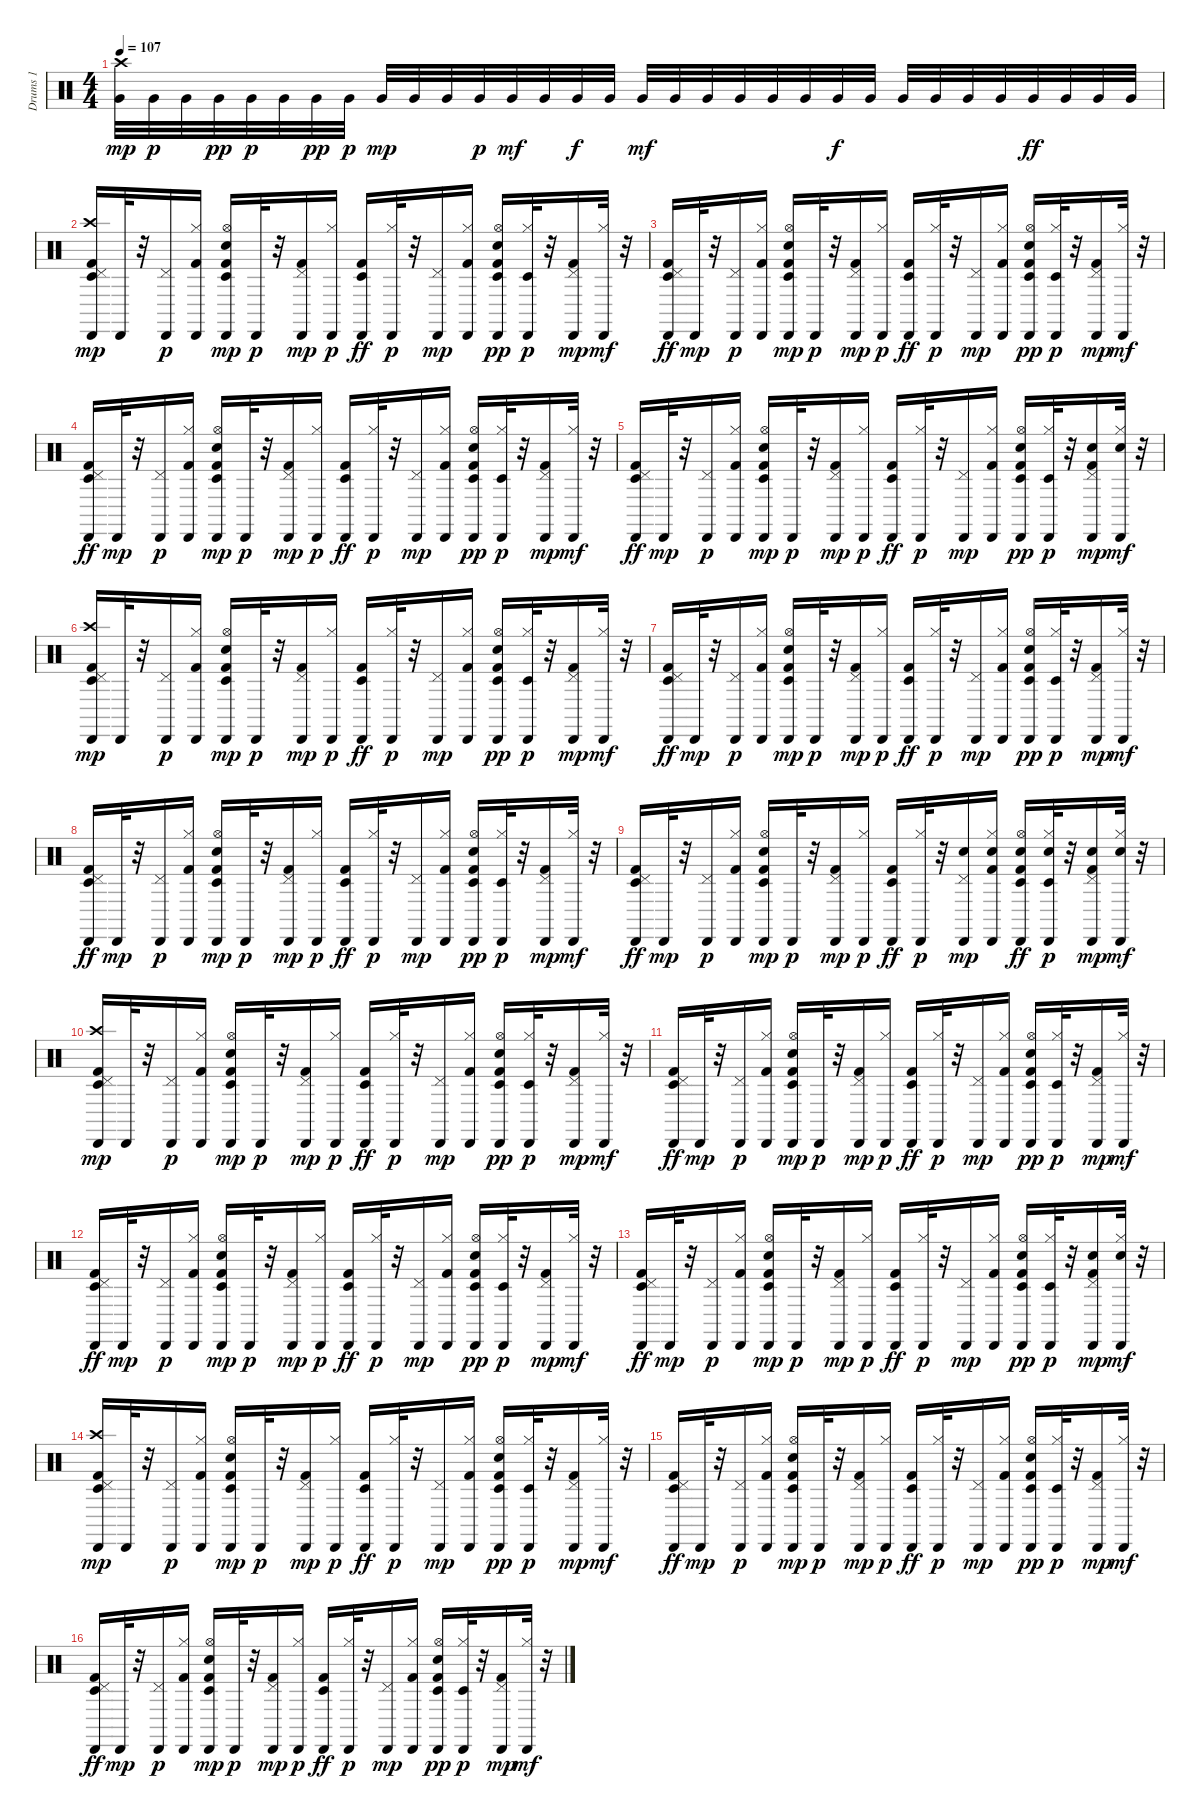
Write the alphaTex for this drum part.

\track ("Drums 1" "Drums 1") {instrument percussion}
\staff {score}
\articulation defaults
\ts (4 4)
\tempo 107
\clef neutral
\ks c
("Very Low Tom (hit)" "Crash high (hit)").32{dy mp} "Very Low Tom (hit)".32{dy p} "Very Low Tom (hit)".32 "Very Low Tom (hit)".32{dy pp} "Very Low Tom (hit)".32{dy p} "Very Low Tom (hit)".32 "Very Low Tom (hit)".32{dy pp} "Very Low Tom (hit)".32{dy p} "Very Low Tom (hit)".32{dy mp} "Very Low Tom (hit)".32 "Very Low Tom (hit)".32 "Very Low Tom (hit)".32{dy p} "Very Low Tom (hit)".32{dy mf} "Very Low Tom (hit)".32 "Very Low Tom (hit)".32{dy f} "Very Low Tom (hit)".32 "Very Low Tom (hit)".32{dy mf} "Very Low Tom (hit)".32 "Very Low Tom (hit)".32 "Very Low Tom (hit)".32 "Very Low Tom (hit)".32 "Very Low Tom (hit)".32 "Very Low Tom (hit)".32{dy f} "Very Low Tom (hit)".32 "Very Low Tom (hit)".32 "Very Low Tom (hit)".32 "Very Low Tom (hit)".32 "Very Low Tom (hit)".32 "Very Low Tom (hit)".32{dy ff} "Very Low Tom (hit)".32 "Very Low Tom (hit)".32 "Very Low Tom (hit)".32 |
("Timbale low (hit)" "Kick (hit) 2" "Pedal Hi-Hat (hit)" "Cabasa (hit)" "Crash high (hit)").16{dy mp} "Cabasa (hit)".32 r.32 ("Pedal Hi-Hat (hit)" "Cabasa (hit)").16{dy p} ("Kick (hit) 2" "Hi-Hat (closed)" "Cabasa (hit)").16 ("Timbale low (hit)" "Kick (hit) 2" "Snare (hit) 2" "Hi-Hat (open)" "Cabasa (hit)").16{dy mp} "Cabasa (hit)".32{dy p} r.32 ("Kick (hit) 2" "Pedal Hi-Hat (hit)" "Cabasa (hit)").16{dy mp} ("Hi-Hat (closed)" "Cabasa (hit)").16{dy p} ("Timbale low (hit)" "Kick (hit) 2" "Cabasa (hit)").16{dy ff} ("Hi-Hat (closed)" "Cabasa (hit)").32{dy p} r.32 ("Pedal Hi-Hat (hit)" "Cabasa (hit)").16{dy mp} ("Kick (hit) 2" "Hi-Hat (closed)" "Cabasa (hit)").16 ("Timbale low (hit)" "Kick (hit) 2" "Snare (hit) 2" "Hi-Hat (open)" "Cabasa (hit)").16{dy pp} ("Timbale low (hit)" "Hi-Hat (closed)" "Cabasa (hit)").32{dy p} r.32 ("Kick (hit) 2" "Pedal Hi-Hat (hit)" "Cabasa (hit)").16{dy mp} ("Hi-Hat (closed)" "Cabasa (hit)").32{dy mf} r.32 |
("Timbale low (hit)" "Kick (hit) 2" "Pedal Hi-Hat (hit)" "Cabasa (hit)").16{dy ff} "Cabasa (hit)".32{dy mp} r.32 ("Pedal Hi-Hat (hit)" "Cabasa (hit)").16{dy p} ("Kick (hit) 2" "Hi-Hat (closed)" "Cabasa (hit)").16 ("Timbale low (hit)" "Kick (hit) 2" "Snare (hit) 2" "Hi-Hat (open)" "Cabasa (hit)").16{dy mp} "Cabasa (hit)".32{dy p} r.32 ("Kick (hit) 2" "Pedal Hi-Hat (hit)" "Cabasa (hit)").16{dy mp} ("Hi-Hat (closed)" "Cabasa (hit)").16{dy p} ("Timbale low (hit)" "Kick (hit) 2" "Cabasa (hit)").16{dy ff} ("Hi-Hat (closed)" "Cabasa (hit)").32{dy p} r.32 ("Pedal Hi-Hat (hit)" "Cabasa (hit)").16{dy mp} ("Kick (hit) 2" "Hi-Hat (closed)" "Cabasa (hit)").16 ("Timbale low (hit)" "Kick (hit) 2" "Snare (hit) 2" "Hi-Hat (open)" "Cabasa (hit)").16{dy pp} ("Timbale low (hit)" "Hi-Hat (closed)" "Cabasa (hit)").32{dy p} r.32 ("Kick (hit) 2" "Pedal Hi-Hat (hit)" "Cabasa (hit)").16{dy mp} ("Hi-Hat (closed)" "Cabasa (hit)").32{dy mf} r.32 |
("Timbale low (hit)" "Kick (hit) 2" "Pedal Hi-Hat (hit)" "Cabasa (hit)").16{dy ff} "Cabasa (hit)".32{dy mp} r.32 ("Pedal Hi-Hat (hit)" "Cabasa (hit)").16{dy p} ("Kick (hit) 2" "Hi-Hat (closed)" "Cabasa (hit)").16 ("Timbale low (hit)" "Kick (hit) 2" "Snare (hit) 2" "Hi-Hat (open)" "Cabasa (hit)").16{dy mp} "Cabasa (hit)".32{dy p} r.32 ("Kick (hit) 2" "Pedal Hi-Hat (hit)" "Cabasa (hit)").16{dy mp} ("Hi-Hat (closed)" "Cabasa (hit)").16{dy p} ("Timbale low (hit)" "Kick (hit) 2" "Cabasa (hit)").16{dy ff} ("Hi-Hat (closed)" "Cabasa (hit)").32{dy p} r.32 ("Pedal Hi-Hat (hit)" "Cabasa (hit)").16{dy mp} ("Kick (hit) 2" "Hi-Hat (closed)" "Cabasa (hit)").16 ("Timbale low (hit)" "Kick (hit) 2" "Snare (hit) 2" "Hi-Hat (open)" "Cabasa (hit)").16{dy pp} ("Timbale low (hit)" "Hi-Hat (closed)" "Cabasa (hit)").32{dy p} r.32 ("Kick (hit) 2" "Pedal Hi-Hat (hit)" "Cabasa (hit)").16{dy mp} ("Hi-Hat (closed)" "Cabasa (hit)").32{dy mf} r.32 |
("Timbale low (hit)" "Kick (hit) 2" "Pedal Hi-Hat (hit)" "Cabasa (hit)").16{dy ff} "Cabasa (hit)".32{dy mp} r.32 ("Pedal Hi-Hat (hit)" "Cabasa (hit)").16{dy p} ("Kick (hit) 2" "Hi-Hat (closed)" "Cabasa (hit)").16 ("Timbale low (hit)" "Kick (hit) 2" "Snare (hit) 2" "Hi-Hat (open)" "Cabasa (hit)").16{dy mp} "Cabasa (hit)".32{dy p} r.32 ("Kick (hit) 2" "Pedal Hi-Hat (hit)" "Cabasa (hit)").16{dy mp} ("Hi-Hat (closed)" "Cabasa (hit)").16{dy p} ("Timbale low (hit)" "Kick (hit) 2" "Cabasa (hit)").16{dy ff} ("Hi-Hat (closed)" "Cabasa (hit)").32{dy p} r.32 ("Pedal Hi-Hat (hit)" "Cabasa (hit)").16{dy mp} ("Kick (hit) 2" "Hi-Hat (closed)" "Cabasa (hit)").16 ("Timbale low (hit)" "Kick (hit) 2" "Snare (hit) 2" "Hi-Hat (open)" "Cabasa (hit)").16{dy pp} ("Timbale low (hit)" "Hi-Hat (closed)" "Cabasa (hit)").32{dy p} r.32 ("Kick (hit) 2" "Pedal Hi-Hat (hit)" "Snare (hit) 2" "Cabasa (hit)").16{dy mp} ("Hi-Hat (closed)" "Snare (hit) 2" "Cabasa (hit)").32{dy mf} r.32 |
("Timbale low (hit)" "Kick (hit) 2" "Pedal Hi-Hat (hit)" "Cabasa (hit)" "Crash high (hit)").16{dy mp} "Cabasa (hit)".32 r.32 ("Pedal Hi-Hat (hit)" "Cabasa (hit)").16{dy p} ("Kick (hit) 2" "Hi-Hat (closed)" "Cabasa (hit)").16 ("Timbale low (hit)" "Kick (hit) 2" "Snare (hit) 2" "Hi-Hat (open)" "Cabasa (hit)").16{dy mp} "Cabasa (hit)".32{dy p} r.32 ("Kick (hit) 2" "Pedal Hi-Hat (hit)" "Cabasa (hit)").16{dy mp} ("Hi-Hat (closed)" "Cabasa (hit)").16{dy p} ("Timbale low (hit)" "Kick (hit) 2" "Cabasa (hit)").16{dy ff} ("Hi-Hat (closed)" "Cabasa (hit)").32{dy p} r.32 ("Pedal Hi-Hat (hit)" "Cabasa (hit)").16{dy mp} ("Kick (hit) 2" "Hi-Hat (closed)" "Cabasa (hit)").16 ("Timbale low (hit)" "Kick (hit) 2" "Snare (hit) 2" "Hi-Hat (open)" "Cabasa (hit)").16{dy pp} ("Timbale low (hit)" "Hi-Hat (closed)" "Cabasa (hit)").32{dy p} r.32 ("Kick (hit) 2" "Pedal Hi-Hat (hit)" "Cabasa (hit)").16{dy mp} ("Hi-Hat (closed)" "Cabasa (hit)").32{dy mf} r.32 |
("Timbale low (hit)" "Kick (hit) 2" "Pedal Hi-Hat (hit)" "Cabasa (hit)").16{dy ff} "Cabasa (hit)".32{dy mp} r.32 ("Pedal Hi-Hat (hit)" "Cabasa (hit)").16{dy p} ("Kick (hit) 2" "Hi-Hat (closed)" "Cabasa (hit)").16 ("Timbale low (hit)" "Kick (hit) 2" "Snare (hit) 2" "Hi-Hat (open)" "Cabasa (hit)").16{dy mp} "Cabasa (hit)".32{dy p} r.32 ("Kick (hit) 2" "Pedal Hi-Hat (hit)" "Cabasa (hit)").16{dy mp} ("Hi-Hat (closed)" "Cabasa (hit)").16{dy p} ("Timbale low (hit)" "Kick (hit) 2" "Cabasa (hit)").16{dy ff} ("Hi-Hat (closed)" "Cabasa (hit)").32{dy p} r.32 ("Pedal Hi-Hat (hit)" "Cabasa (hit)").16{dy mp} ("Kick (hit) 2" "Hi-Hat (closed)" "Cabasa (hit)").16 ("Timbale low (hit)" "Kick (hit) 2" "Snare (hit) 2" "Hi-Hat (open)" "Cabasa (hit)").16{dy pp} ("Timbale low (hit)" "Hi-Hat (closed)" "Cabasa (hit)").32{dy p} r.32 ("Kick (hit) 2" "Pedal Hi-Hat (hit)" "Cabasa (hit)").16{dy mp} ("Hi-Hat (closed)" "Cabasa (hit)").32{dy mf} r.32 |
("Timbale low (hit)" "Kick (hit) 2" "Pedal Hi-Hat (hit)" "Cabasa (hit)").16{dy ff} "Cabasa (hit)".32{dy mp} r.32 ("Pedal Hi-Hat (hit)" "Cabasa (hit)").16{dy p} ("Kick (hit) 2" "Hi-Hat (closed)" "Cabasa (hit)").16 ("Timbale low (hit)" "Kick (hit) 2" "Snare (hit) 2" "Hi-Hat (open)" "Cabasa (hit)").16{dy mp} "Cabasa (hit)".32{dy p} r.32 ("Kick (hit) 2" "Pedal Hi-Hat (hit)" "Cabasa (hit)").16{dy mp} ("Hi-Hat (closed)" "Cabasa (hit)").16{dy p} ("Timbale low (hit)" "Kick (hit) 2" "Cabasa (hit)").16{dy ff} ("Hi-Hat (closed)" "Cabasa (hit)").32{dy p} r.32 ("Pedal Hi-Hat (hit)" "Cabasa (hit)").16{dy mp} ("Kick (hit) 2" "Hi-Hat (closed)" "Cabasa (hit)").16 ("Timbale low (hit)" "Kick (hit) 2" "Snare (hit) 2" "Hi-Hat (open)" "Cabasa (hit)").16{dy pp} ("Timbale low (hit)" "Hi-Hat (closed)" "Cabasa (hit)").32{dy p} r.32 ("Kick (hit) 2" "Pedal Hi-Hat (hit)" "Cabasa (hit)").16{dy mp} ("Hi-Hat (closed)" "Cabasa (hit)").32{dy mf} r.32 |
("Timbale low (hit)" "Kick (hit) 2" "Pedal Hi-Hat (hit)" "Cabasa (hit)").16{dy ff} "Cabasa (hit)".32{dy mp} r.32 ("Pedal Hi-Hat (hit)" "Cabasa (hit)").16{dy p} ("Kick (hit) 2" "Hi-Hat (closed)" "Cabasa (hit)").16 ("Timbale low (hit)" "Kick (hit) 2" "Snare (hit) 2" "Hi-Hat (open)" "Cabasa (hit)").16{dy mp} "Cabasa (hit)".32{dy p} r.32 ("Kick (hit) 2" "Pedal Hi-Hat (hit)" "Cabasa (hit)").16{dy mp} ("Hi-Hat (closed)" "Cabasa (hit)").16{dy p} ("Timbale low (hit)" "Kick (hit) 2" "Cabasa (hit)").16{dy ff} ("Hi-Hat (closed)" "Cabasa (hit)").32{dy p} r.32 ("Pedal Hi-Hat (hit)" "Snare (hit) 2" "Cabasa (hit)").16{dy mp} ("Kick (hit) 2" "Hi-Hat (closed)" "Snare (hit) 2" "Cabasa (hit)").16 ("Timbale low (hit)" "Kick (hit) 2" "Hi-Hat (open)" "Snare (hit) 2" "Cabasa (hit)").16{dy ff} ("Timbale low (hit)" "Hi-Hat (closed)" "Snare (hit) 2" "Cabasa (hit)").32{dy p} r.32 ("Kick (hit) 2" "Pedal Hi-Hat (hit)" "Snare (hit) 2" "Cabasa (hit)").16{dy mp} ("Hi-Hat (closed)" "Snare (hit) 2" "Cabasa (hit)").32{dy mf} r.32 |
("Timbale low (hit)" "Kick (hit) 2" "Pedal Hi-Hat (hit)" "Cabasa (hit)" "Crash high (hit)").16{dy mp} "Cabasa (hit)".32 r.32 ("Pedal Hi-Hat (hit)" "Cabasa (hit)").16{dy p} ("Kick (hit) 2" "Hi-Hat (closed)" "Cabasa (hit)").16 ("Timbale low (hit)" "Kick (hit) 2" "Snare (hit) 2" "Hi-Hat (open)" "Cabasa (hit)").16{dy mp} "Cabasa (hit)".32{dy p} r.32 ("Kick (hit) 2" "Pedal Hi-Hat (hit)" "Cabasa (hit)").16{dy mp} ("Hi-Hat (closed)" "Cabasa (hit)").16{dy p} ("Timbale low (hit)" "Kick (hit) 2" "Cabasa (hit)").16{dy ff} ("Hi-Hat (closed)" "Cabasa (hit)").32{dy p} r.32 ("Pedal Hi-Hat (hit)" "Cabasa (hit)").16{dy mp} ("Kick (hit) 2" "Hi-Hat (closed)" "Cabasa (hit)").16 ("Timbale low (hit)" "Kick (hit) 2" "Snare (hit) 2" "Hi-Hat (open)" "Cabasa (hit)").16{dy pp} ("Timbale low (hit)" "Hi-Hat (closed)" "Cabasa (hit)").32{dy p} r.32 ("Kick (hit) 2" "Pedal Hi-Hat (hit)" "Cabasa (hit)").16{dy mp} ("Hi-Hat (closed)" "Cabasa (hit)").32{dy mf} r.32 |
("Timbale low (hit)" "Kick (hit) 2" "Pedal Hi-Hat (hit)" "Cabasa (hit)").16{dy ff} "Cabasa (hit)".32{dy mp} r.32 ("Pedal Hi-Hat (hit)" "Cabasa (hit)").16{dy p} ("Kick (hit) 2" "Hi-Hat (closed)" "Cabasa (hit)").16 ("Timbale low (hit)" "Kick (hit) 2" "Snare (hit) 2" "Hi-Hat (open)" "Cabasa (hit)").16{dy mp} "Cabasa (hit)".32{dy p} r.32 ("Kick (hit) 2" "Pedal Hi-Hat (hit)" "Cabasa (hit)").16{dy mp} ("Hi-Hat (closed)" "Cabasa (hit)").16{dy p} ("Timbale low (hit)" "Kick (hit) 2" "Cabasa (hit)").16{dy ff} ("Hi-Hat (closed)" "Cabasa (hit)").32{dy p} r.32 ("Pedal Hi-Hat (hit)" "Cabasa (hit)").16{dy mp} ("Kick (hit) 2" "Hi-Hat (closed)" "Cabasa (hit)").16 ("Timbale low (hit)" "Kick (hit) 2" "Snare (hit) 2" "Hi-Hat (open)" "Cabasa (hit)").16{dy pp} ("Timbale low (hit)" "Hi-Hat (closed)" "Cabasa (hit)").32{dy p} r.32 ("Kick (hit) 2" "Pedal Hi-Hat (hit)" "Cabasa (hit)").16{dy mp} ("Hi-Hat (closed)" "Cabasa (hit)").32{dy mf} r.32 |
("Timbale low (hit)" "Kick (hit) 2" "Pedal Hi-Hat (hit)" "Cabasa (hit)").16{dy ff} "Cabasa (hit)".32{dy mp} r.32 ("Pedal Hi-Hat (hit)" "Cabasa (hit)").16{dy p} ("Kick (hit) 2" "Hi-Hat (closed)" "Cabasa (hit)").16 ("Timbale low (hit)" "Kick (hit) 2" "Snare (hit) 2" "Hi-Hat (open)" "Cabasa (hit)").16{dy mp} "Cabasa (hit)".32{dy p} r.32 ("Kick (hit) 2" "Pedal Hi-Hat (hit)" "Cabasa (hit)").16{dy mp} ("Hi-Hat (closed)" "Cabasa (hit)").16{dy p} ("Timbale low (hit)" "Kick (hit) 2" "Cabasa (hit)").16{dy ff} ("Hi-Hat (closed)" "Cabasa (hit)").32{dy p} r.32 ("Pedal Hi-Hat (hit)" "Cabasa (hit)").16{dy mp} ("Kick (hit) 2" "Hi-Hat (closed)" "Cabasa (hit)").16 ("Timbale low (hit)" "Kick (hit) 2" "Snare (hit) 2" "Hi-Hat (open)" "Cabasa (hit)").16{dy pp} ("Timbale low (hit)" "Hi-Hat (closed)" "Cabasa (hit)").32{dy p} r.32 ("Kick (hit) 2" "Pedal Hi-Hat (hit)" "Cabasa (hit)").16{dy mp} ("Hi-Hat (closed)" "Cabasa (hit)").32{dy mf} r.32 |
("Timbale low (hit)" "Kick (hit) 2" "Pedal Hi-Hat (hit)" "Cabasa (hit)").16{dy ff} "Cabasa (hit)".32{dy mp} r.32 ("Pedal Hi-Hat (hit)" "Cabasa (hit)").16{dy p} ("Kick (hit) 2" "Hi-Hat (closed)" "Cabasa (hit)").16 ("Timbale low (hit)" "Kick (hit) 2" "Snare (hit) 2" "Hi-Hat (open)" "Cabasa (hit)").16{dy mp} "Cabasa (hit)".32{dy p} r.32 ("Kick (hit) 2" "Pedal Hi-Hat (hit)" "Cabasa (hit)").16{dy mp} ("Hi-Hat (closed)" "Cabasa (hit)").16{dy p} ("Timbale low (hit)" "Kick (hit) 2" "Cabasa (hit)").16{dy ff} ("Hi-Hat (closed)" "Cabasa (hit)").32{dy p} r.32 ("Pedal Hi-Hat (hit)" "Cabasa (hit)").16{dy mp} ("Kick (hit) 2" "Hi-Hat (closed)" "Cabasa (hit)").16 ("Timbale low (hit)" "Kick (hit) 2" "Snare (hit) 2" "Hi-Hat (open)" "Cabasa (hit)").16{dy pp} ("Timbale low (hit)" "Hi-Hat (closed)" "Cabasa (hit)").32{dy p} r.32 ("Kick (hit) 2" "Pedal Hi-Hat (hit)" "Snare (hit) 2" "Cabasa (hit)").16{dy mp} ("Hi-Hat (closed)" "Snare (hit) 2" "Cabasa (hit)").32{dy mf} r.32 |
("Timbale low (hit)" "Kick (hit) 2" "Pedal Hi-Hat (hit)" "Cabasa (hit)" "Crash high (hit)").16{dy mp} "Cabasa (hit)".32 r.32 ("Pedal Hi-Hat (hit)" "Cabasa (hit)").16{dy p} ("Kick (hit) 2" "Hi-Hat (closed)" "Cabasa (hit)").16 ("Timbale low (hit)" "Kick (hit) 2" "Snare (hit) 2" "Hi-Hat (open)" "Cabasa (hit)").16{dy mp} "Cabasa (hit)".32{dy p} r.32 ("Kick (hit) 2" "Pedal Hi-Hat (hit)" "Cabasa (hit)").16{dy mp} ("Hi-Hat (closed)" "Cabasa (hit)").16{dy p} ("Timbale low (hit)" "Kick (hit) 2" "Cabasa (hit)").16{dy ff} ("Hi-Hat (closed)" "Cabasa (hit)").32{dy p} r.32 ("Pedal Hi-Hat (hit)" "Cabasa (hit)").16{dy mp} ("Kick (hit) 2" "Hi-Hat (closed)" "Cabasa (hit)").16 ("Timbale low (hit)" "Kick (hit) 2" "Snare (hit) 2" "Hi-Hat (open)" "Cabasa (hit)").16{dy pp} ("Timbale low (hit)" "Hi-Hat (closed)" "Cabasa (hit)").32{dy p} r.32 ("Kick (hit) 2" "Pedal Hi-Hat (hit)" "Cabasa (hit)").16{dy mp} ("Hi-Hat (closed)" "Cabasa (hit)").32{dy mf} r.32 |
("Timbale low (hit)" "Kick (hit) 2" "Pedal Hi-Hat (hit)" "Cabasa (hit)").16{dy ff} "Cabasa (hit)".32{dy mp} r.32 ("Pedal Hi-Hat (hit)" "Cabasa (hit)").16{dy p} ("Kick (hit) 2" "Hi-Hat (closed)" "Cabasa (hit)").16 ("Timbale low (hit)" "Kick (hit) 2" "Snare (hit) 2" "Hi-Hat (open)" "Cabasa (hit)").16{dy mp} "Cabasa (hit)".32{dy p} r.32 ("Kick (hit) 2" "Pedal Hi-Hat (hit)" "Cabasa (hit)").16{dy mp} ("Hi-Hat (closed)" "Cabasa (hit)").16{dy p} ("Timbale low (hit)" "Kick (hit) 2" "Cabasa (hit)").16{dy ff} ("Hi-Hat (closed)" "Cabasa (hit)").32{dy p} r.32 ("Pedal Hi-Hat (hit)" "Cabasa (hit)").16{dy mp} ("Kick (hit) 2" "Hi-Hat (closed)" "Cabasa (hit)").16 ("Timbale low (hit)" "Kick (hit) 2" "Snare (hit) 2" "Hi-Hat (open)" "Cabasa (hit)").16{dy pp} ("Timbale low (hit)" "Hi-Hat (closed)" "Cabasa (hit)").32{dy p} r.32 ("Kick (hit) 2" "Pedal Hi-Hat (hit)" "Cabasa (hit)").16{dy mp} ("Hi-Hat (closed)" "Cabasa (hit)").32{dy mf} r.32 |
("Timbale low (hit)" "Kick (hit) 2" "Pedal Hi-Hat (hit)" "Cabasa (hit)").16{dy ff} "Cabasa (hit)".32{dy mp} r.32 ("Pedal Hi-Hat (hit)" "Cabasa (hit)").16{dy p} ("Kick (hit) 2" "Hi-Hat (closed)" "Cabasa (hit)").16 ("Timbale low (hit)" "Kick (hit) 2" "Snare (hit) 2" "Hi-Hat (open)" "Cabasa (hit)").16{dy mp} "Cabasa (hit)".32{dy p} r.32 ("Kick (hit) 2" "Pedal Hi-Hat (hit)" "Cabasa (hit)").16{dy mp} ("Hi-Hat (closed)" "Cabasa (hit)").16{dy p} ("Timbale low (hit)" "Kick (hit) 2" "Cabasa (hit)").16{dy ff} ("Hi-Hat (closed)" "Cabasa (hit)").32{dy p} r.32 ("Pedal Hi-Hat (hit)" "Cabasa (hit)").16{dy mp} ("Kick (hit) 2" "Hi-Hat (closed)" "Cabasa (hit)").16 ("Timbale low (hit)" "Kick (hit) 2" "Snare (hit) 2" "Hi-Hat (open)" "Cabasa (hit)").16{dy pp} ("Timbale low (hit)" "Hi-Hat (closed)" "Cabasa (hit)").32{dy p} r.32 ("Kick (hit) 2" "Pedal Hi-Hat (hit)" "Cabasa (hit)").16{dy mp} ("Hi-Hat (closed)" "Cabasa (hit)").32{dy mf} r.32
